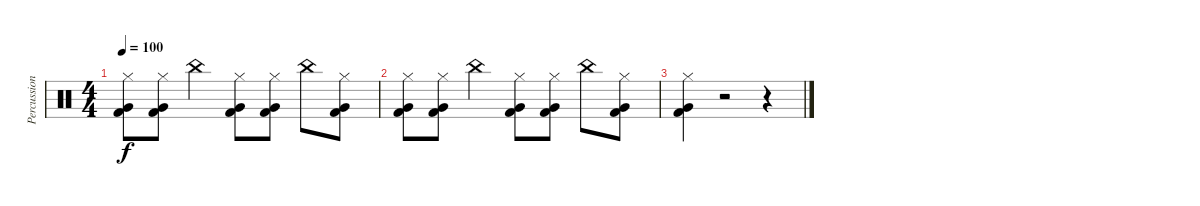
\track ("Percussion" "Percussion") {instrument percussion}
\staff {score}
\articulation defaults
\ts (4 4)
\tempo 100
\clef neutral
\ks c
("Hi-Hat (closed)" "Very Low Tom (hit)" "Kick (hit) 2").8{dy f} ("Hi-Hat (closed)" "Kick (hit) 2" "Very Low Tom (hit)").8 "China (hit)".4 ("Hi-Hat (closed)" "Kick (hit) 2" "Very Low Tom (hit)").8 ("Hi-Hat (closed)" "Very Low Tom (hit)" "Kick (hit) 2").8 "China (hit)".8 ("Hi-Hat (closed)" "Very Low Tom (hit)" "Kick (hit) 2").8 |
("Hi-Hat (closed)" "Kick (hit) 2" "Very Low Tom (hit)").8 ("Hi-Hat (closed)" "Kick (hit) 2" "Very Low Tom (hit)").8 "China (hit)".4 ("Hi-Hat (closed)" "Kick (hit) 2" "Very Low Tom (hit)").8 ("Hi-Hat (closed)" "Very Low Tom (hit)" "Kick (hit) 2").8 "China (hit)".8 ("Hi-Hat (closed)" "Very Low Tom (hit)" "Kick (hit) 2").8 |
("Hi-Hat (closed)" "Very Low Tom (hit)" "Kick (hit) 2").4 r.2 r.4
